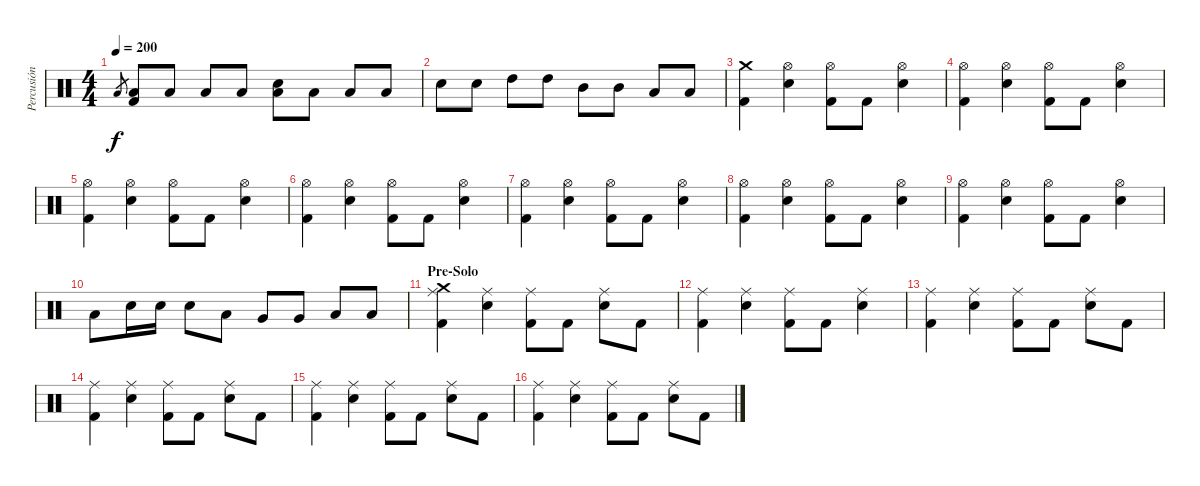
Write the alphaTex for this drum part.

\track ("Percusión" "Percusión") {instrument percussion}
\staff {score}
\articulation defaults
\ts (4 4)
\tempo 200
\clef neutral
\ks c "Low Floor Tom (hit)".8{gr dy f}
("Low Floor Tom (hit)" "Kick (hit) 2").8 "Low Floor Tom (hit)".8 "Low Floor Tom (hit)".8 "Low Floor Tom (hit)".8 ("Low Floor Tom (hit)" "Snare (hit) 2").8 "Low Floor Tom (hit)".8 "Low Floor Tom (hit)".8 "Low Floor Tom (hit)".8 |
"Snare (hit) 2".8 "Snare (hit) 2".8 "High Tom (hit)".8 "High Tom (hit)".8 "Mid Tom (hit)".8 "Mid Tom (hit)".8 "Low Tom (hit)".8 "Low Tom (hit)".8 |
("Crash medium (hit)" "Kick (hit) 2").4 ("Snare (hit) 2" "Hi-Hat (open)").4 ("Hi-Hat (open)" "Kick (hit) 2").8 "Kick (hit) 2".8 ("Snare (hit) 2" "Hi-Hat (open)").4 |
("Hi-Hat (open)" "Kick (hit) 2").4 ("Snare (hit) 2" "Hi-Hat (open)").4 ("Hi-Hat (open)" "Kick (hit) 2").8 "Kick (hit) 2".8 ("Snare (hit) 2" "Hi-Hat (open)").4 |
("Hi-Hat (open)" "Kick (hit) 2").4 ("Snare (hit) 2" "Hi-Hat (open)").4 ("Hi-Hat (open)" "Kick (hit) 2").8 "Kick (hit) 2".8 ("Snare (hit) 2" "Hi-Hat (open)").4 |
("Hi-Hat (open)" "Kick (hit) 2").4 ("Snare (hit) 2" "Hi-Hat (open)").4 ("Hi-Hat (open)" "Kick (hit) 2").8 "Kick (hit) 2".8 ("Snare (hit) 2" "Hi-Hat (open)").4 |
("Hi-Hat (open)" "Kick (hit) 2").4 ("Snare (hit) 2" "Hi-Hat (open)").4 ("Hi-Hat (open)" "Kick (hit) 2").8 "Kick (hit) 2".8 ("Snare (hit) 2" "Hi-Hat (open)").4 |
("Hi-Hat (open)" "Kick (hit) 2").4 ("Snare (hit) 2" "Hi-Hat (open)").4 ("Hi-Hat (open)" "Kick (hit) 2").8 "Kick (hit) 2".8 ("Snare (hit) 2" "Hi-Hat (open)").4 |
("Hi-Hat (open)" "Kick (hit) 2").4 ("Snare (hit) 2" "Hi-Hat (open)").4 ("Hi-Hat (open)" "Kick (hit) 2").8 "Kick (hit) 2".8 ("Snare (hit) 2" "Hi-Hat (open)").4 |
"Low Tom (hit)".8 "Snare (hit) 2".16 "Snare (hit) 2".16 "Snare (hit) 2".8 "Low Tom (hit)".8 "Very Low Tom (hit)".8 "Very Low Tom (hit)".8 "Low Floor Tom (hit)".8 "Low Floor Tom (hit)".8 |
\section ("" "Pre-Solo")
("Ride (middle)" "Crash medium (hit)" "Kick (hit) 2").4 ("Ride (middle)" "Snare (hit) 2").4 ("Ride (middle)" "Kick (hit) 2").8 "Kick (hit) 2".8 ("Ride (middle)" "Snare (hit) 2").8 "Kick (hit) 2".8 |
("Ride (middle)" "Kick (hit) 2").4 ("Ride (middle)" "Snare (hit) 2").4 ("Ride (middle)" "Kick (hit) 2").8 "Kick (hit) 2".8 ("Ride (middle)" "Snare (hit) 2").4 |
("Ride (middle)" "Kick (hit) 2").4 ("Ride (middle)" "Snare (hit) 2").4 ("Ride (middle)" "Kick (hit) 2").8 "Kick (hit) 2".8 ("Ride (middle)" "Snare (hit) 2").8 "Kick (hit) 2".8 |
("Ride (middle)" "Kick (hit) 2").4 ("Ride (middle)" "Snare (hit) 2").4 ("Ride (middle)" "Kick (hit) 2").8 "Kick (hit) 2".8 ("Ride (middle)" "Snare (hit) 2").8 "Kick (hit) 2".8 |
("Ride (middle)" "Kick (hit) 2").4 ("Ride (middle)" "Snare (hit) 2").4 ("Ride (middle)" "Kick (hit) 2").8 "Kick (hit) 2".8 ("Ride (middle)" "Snare (hit) 2").8 "Kick (hit) 2".8 |
("Ride (middle)" "Kick (hit) 2").4 ("Ride (middle)" "Snare (hit) 2").4 ("Ride (middle)" "Kick (hit) 2").8 "Kick (hit) 2".8 ("Ride (middle)" "Snare (hit) 2").8 "Kick (hit) 2".8
